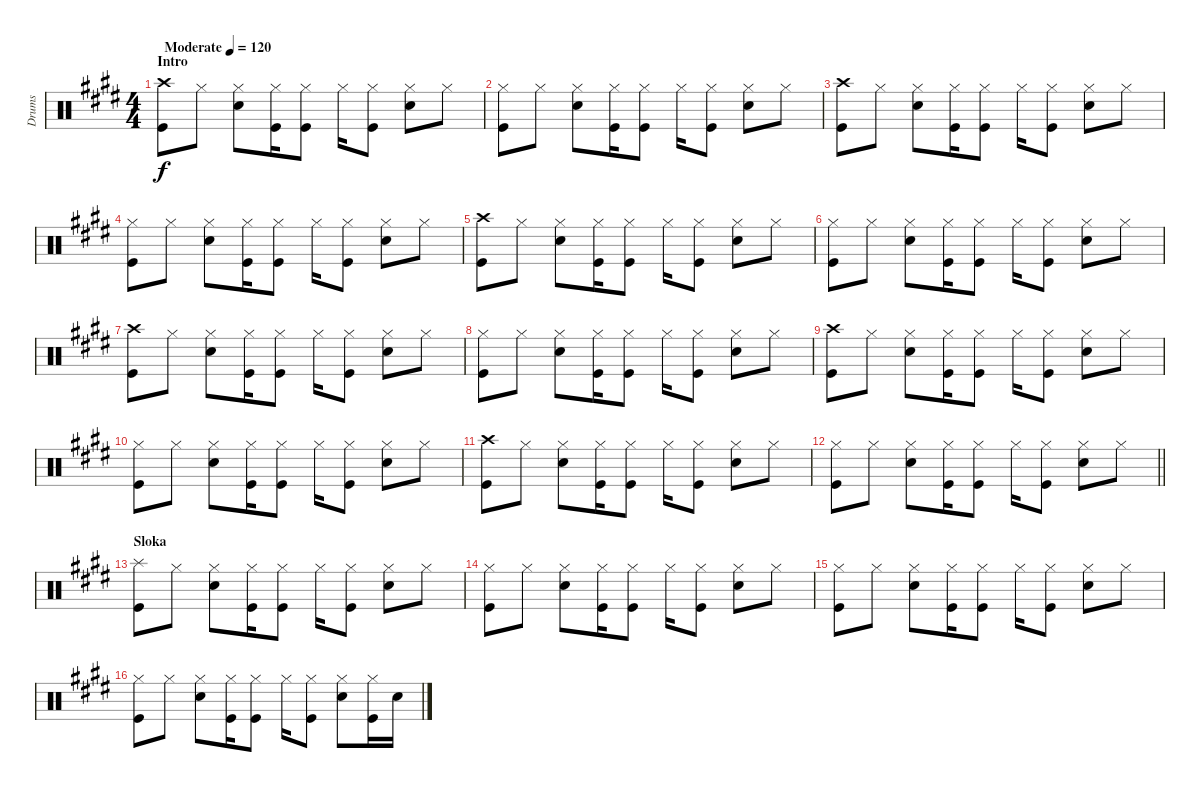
\track ("Drums" "Drums") {instrument percussion}
\staff {score}
\articulation defaults
\ts (4 4)
\section ("" "Intro")
\tempo (120 "Moderate")
\clef neutral
\ks e
("Crash high (hit)" "Kick (hit)").8{dy f} "Hi-Hat (closed)".8 ("Hi-Hat (closed)" "Snare (hit) 2").8 ("Hi-Hat (closed)" "Kick (hit)").16 ("Hi-Hat (closed)" "Kick (hit)").8 "Hi-Hat (closed)".16 ("Hi-Hat (closed)" "Kick (hit)").8 ("Hi-Hat (closed)" "Snare (hit) 2").8 "Hi-Hat (closed)".8 |
\ks c#minor
("Hi-Hat (closed)" "Kick (hit)").8 "Hi-Hat (closed)".8 ("Hi-Hat (closed)" "Snare (hit) 2").8 ("Hi-Hat (closed)" "Kick (hit)").16 ("Hi-Hat (closed)" "Kick (hit)").8 "Hi-Hat (closed)".16 ("Hi-Hat (closed)" "Kick (hit)").8 ("Hi-Hat (closed)" "Snare (hit) 2").8 "Hi-Hat (closed)".8 |
\ks e
("Crash high (hit)" "Kick (hit)").8 "Hi-Hat (closed)".8 ("Hi-Hat (closed)" "Snare (hit) 2").8 ("Hi-Hat (closed)" "Kick (hit)").16 ("Hi-Hat (closed)" "Kick (hit)").8 "Hi-Hat (closed)".16 ("Hi-Hat (closed)" "Kick (hit)").8 ("Hi-Hat (closed)" "Snare (hit) 2").8 "Hi-Hat (closed)".8 |
\ks c#minor
("Hi-Hat (closed)" "Kick (hit)").8 "Hi-Hat (closed)".8 ("Hi-Hat (closed)" "Snare (hit) 2").8 ("Hi-Hat (closed)" "Kick (hit)").16 ("Hi-Hat (closed)" "Kick (hit)").8 "Hi-Hat (closed)".16 ("Hi-Hat (closed)" "Kick (hit)").8 ("Hi-Hat (closed)" "Snare (hit) 2").8 "Hi-Hat (closed)".8 |
\ks e
("Crash high (hit)" "Kick (hit)").8 "Hi-Hat (closed)".8 ("Hi-Hat (closed)" "Snare (hit) 2").8 ("Hi-Hat (closed)" "Kick (hit)").16 ("Hi-Hat (closed)" "Kick (hit)").8 "Hi-Hat (closed)".16 ("Hi-Hat (closed)" "Kick (hit)").8 ("Hi-Hat (closed)" "Snare (hit) 2").8 "Hi-Hat (closed)".8 |
\ks c#minor
("Hi-Hat (closed)" "Kick (hit)").8 "Hi-Hat (closed)".8 ("Hi-Hat (closed)" "Snare (hit) 2").8 ("Hi-Hat (closed)" "Kick (hit)").16 ("Hi-Hat (closed)" "Kick (hit)").8 "Hi-Hat (closed)".16 ("Hi-Hat (closed)" "Kick (hit)").8 ("Hi-Hat (closed)" "Snare (hit) 2").8 "Hi-Hat (closed)".8 |
("Crash high (hit)" "Kick (hit)").8 "Hi-Hat (closed)".8 ("Hi-Hat (closed)" "Snare (hit) 2").8 ("Hi-Hat (closed)" "Kick (hit)").16 ("Hi-Hat (closed)" "Kick (hit)").8 "Hi-Hat (closed)".16 ("Hi-Hat (closed)" "Kick (hit)").8 ("Hi-Hat (closed)" "Snare (hit) 2").8 "Hi-Hat (closed)".8 |
("Hi-Hat (closed)" "Kick (hit)").8 "Hi-Hat (closed)".8 ("Hi-Hat (closed)" "Snare (hit) 2").8 ("Hi-Hat (closed)" "Kick (hit)").16 ("Hi-Hat (closed)" "Kick (hit)").8 "Hi-Hat (closed)".16 ("Hi-Hat (closed)" "Kick (hit)").8 ("Hi-Hat (closed)" "Snare (hit) 2").8 "Hi-Hat (closed)".8 |
\ks e
("Crash high (hit)" "Kick (hit)").8 "Hi-Hat (closed)".8 ("Hi-Hat (closed)" "Snare (hit) 2").8 ("Hi-Hat (closed)" "Kick (hit)").16 ("Hi-Hat (closed)" "Kick (hit)").8 "Hi-Hat (closed)".16 ("Hi-Hat (closed)" "Kick (hit)").8 ("Hi-Hat (closed)" "Snare (hit) 2").8 "Hi-Hat (closed)".8 |
\ks c#minor
("Hi-Hat (closed)" "Kick (hit)").8 "Hi-Hat (closed)".8 ("Hi-Hat (closed)" "Snare (hit) 2").8 ("Hi-Hat (closed)" "Kick (hit)").16 ("Hi-Hat (closed)" "Kick (hit)").8 "Hi-Hat (closed)".16 ("Hi-Hat (closed)" "Kick (hit)").8 ("Hi-Hat (closed)" "Snare (hit) 2").8 "Hi-Hat (closed)".8 |
("Crash high (hit)" "Kick (hit)").8 "Hi-Hat (closed)".8 ("Hi-Hat (closed)" "Snare (hit) 2").8 ("Hi-Hat (closed)" "Kick (hit)").16 ("Hi-Hat (closed)" "Kick (hit)").8 "Hi-Hat (closed)".16 ("Hi-Hat (closed)" "Kick (hit)").8 ("Hi-Hat (closed)" "Snare (hit) 2").8 "Hi-Hat (closed)".8 |
\barLineRight lightlight
("Hi-Hat (closed)" "Kick (hit)").8 "Hi-Hat (closed)".8 ("Hi-Hat (closed)" "Snare (hit) 2").8 ("Hi-Hat (closed)" "Kick (hit)").16 ("Hi-Hat (closed)" "Kick (hit)").8 "Hi-Hat (closed)".16 ("Hi-Hat (closed)" "Kick (hit)").8 ("Hi-Hat (closed)" "Snare (hit) 2").8 "Hi-Hat (closed)".8 |
\section ("" "Sloka")
\ks e
("Splash (hit)" "Kick (hit)").8 "Hi-Hat (closed)".8 ("Hi-Hat (closed)" "Snare (hit) 2").8 ("Hi-Hat (closed)" "Kick (hit)").16 ("Hi-Hat (closed)" "Kick (hit)").8 "Hi-Hat (closed)".16 ("Hi-Hat (closed)" "Kick (hit)").8 ("Hi-Hat (closed)" "Snare (hit) 2").8 "Hi-Hat (closed)".8 |
\ks c#minor
("Hi-Hat (closed)" "Kick (hit)").8 "Hi-Hat (closed)".8 ("Hi-Hat (closed)" "Snare (hit) 2").8 ("Hi-Hat (closed)" "Kick (hit)").16 ("Hi-Hat (closed)" "Kick (hit)").8 "Hi-Hat (closed)".16 ("Hi-Hat (closed)" "Kick (hit)").8 ("Hi-Hat (closed)" "Snare (hit) 2").8 "Hi-Hat (closed)".8 |
\ks e
("Hi-Hat (closed)" "Kick (hit)").8 "Hi-Hat (closed)".8 ("Hi-Hat (closed)" "Snare (hit) 2").8 ("Hi-Hat (closed)" "Kick (hit)").16 ("Hi-Hat (closed)" "Kick (hit)").8 "Hi-Hat (closed)".16 ("Hi-Hat (closed)" "Kick (hit)").8 ("Hi-Hat (closed)" "Snare (hit) 2").8 "Hi-Hat (closed)".8 |
\ks c#minor
("Hi-Hat (closed)" "Kick (hit)").8 "Hi-Hat (closed)".8 ("Hi-Hat (closed)" "Snare (hit) 2").8 ("Hi-Hat (closed)" "Kick (hit)").16 ("Hi-Hat (closed)" "Kick (hit)").8 "Hi-Hat (closed)".16 ("Hi-Hat (closed)" "Kick (hit)").8 ("Hi-Hat (closed)" "Snare (hit) 2").8 ("Hi-Hat (closed)" "Kick (hit)").16 "Snare (hit) 2".16
